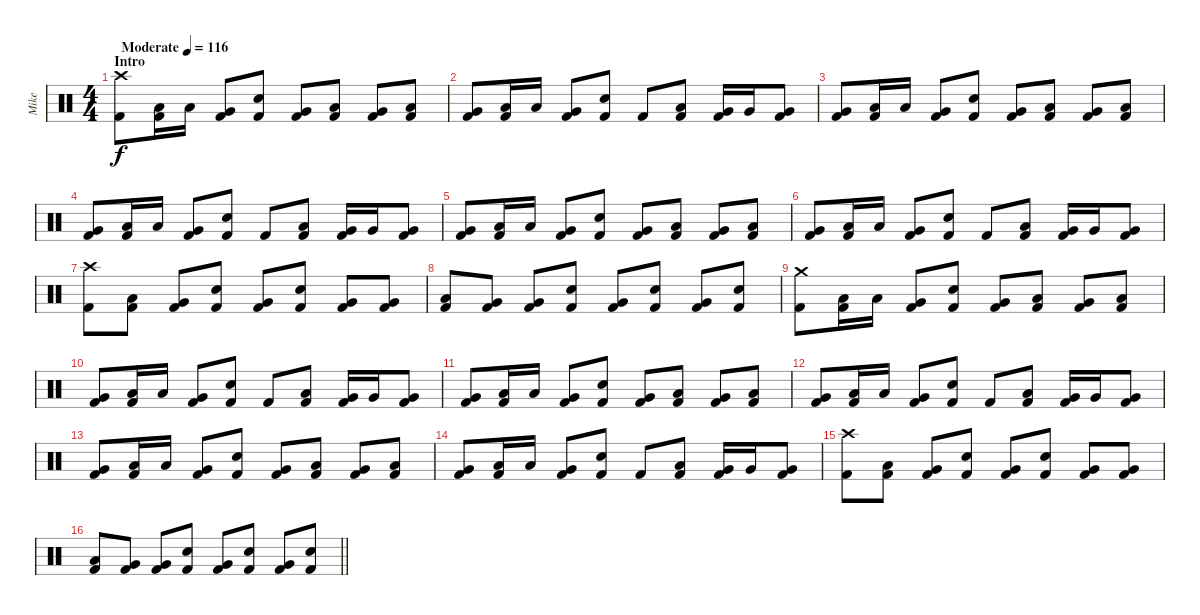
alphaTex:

\track ("Mike" "Mike") {instrument percussion}
\staff {score}
\articulation defaults
\ts (4 4)
\section ("" "Intro")
\tempo (116 "Moderate")
\clef neutral
\ks c
("Crash high (hit)" "Kick (hit) 2").8{dy f} ("Low Tom (hit)" "Kick (hit) 2").16 "Low Tom (hit)".16 ("Very Low Tom (hit)" "Kick (hit) 2").8 ("Snare (hit) 2" "Kick (hit) 2").8 ("Very Low Tom (hit)" "Kick (hit) 2").8 ("Low Tom (hit)" "Kick (hit) 2").8 ("Very Low Tom (hit)" "Kick (hit) 2").8 ("Low Tom (hit)" "Kick (hit) 2").8 |
("Very Low Tom (hit)" "Kick (hit) 2").8 ("Low Tom (hit)" "Kick (hit) 2").16 "Low Tom (hit)".16 ("Very Low Tom (hit)" "Kick (hit) 2").8 ("Snare (hit) 2" "Kick (hit) 2").8 "Kick (hit) 2".8 ("Low Tom (hit)" "Kick (hit) 2").8 ("Very Low Tom (hit)" "Kick (hit) 2").16 "Very Low Tom (hit)".16 ("Very Low Tom (hit)" "Kick (hit) 2").8 |
("Very Low Tom (hit)" "Kick (hit) 2").8 ("Low Tom (hit)" "Kick (hit) 2").16 "Low Tom (hit)".16 ("Very Low Tom (hit)" "Kick (hit) 2").8 ("Snare (hit) 2" "Kick (hit) 2").8 ("Very Low Tom (hit)" "Kick (hit) 2").8 ("Low Tom (hit)" "Kick (hit) 2").8 ("Very Low Tom (hit)" "Kick (hit) 2").8 ("Low Tom (hit)" "Kick (hit) 2").8 |
("Very Low Tom (hit)" "Kick (hit) 2").8 ("Low Tom (hit)" "Kick (hit) 2").16 "Low Tom (hit)".16 ("Very Low Tom (hit)" "Kick (hit) 2").8 ("Snare (hit) 2" "Kick (hit) 2").8 "Kick (hit) 2".8 ("Low Tom (hit)" "Kick (hit) 2").8 ("Very Low Tom (hit)" "Kick (hit) 2").16 "Very Low Tom (hit)".16 ("Very Low Tom (hit)" "Kick (hit) 2").8 |
("Very Low Tom (hit)" "Kick (hit) 2").8 ("Low Tom (hit)" "Kick (hit) 2").16 "Low Tom (hit)".16 ("Very Low Tom (hit)" "Kick (hit) 2").8 ("Snare (hit) 2" "Kick (hit) 2").8 ("Very Low Tom (hit)" "Kick (hit) 2").8 ("Low Tom (hit)" "Kick (hit) 2").8 ("Very Low Tom (hit)" "Kick (hit) 2").8 ("Low Tom (hit)" "Kick (hit) 2").8 |
("Very Low Tom (hit)" "Kick (hit) 2").8 ("Low Tom (hit)" "Kick (hit) 2").16 "Low Tom (hit)".16 ("Very Low Tom (hit)" "Kick (hit) 2").8 ("Snare (hit) 2" "Kick (hit) 2").8 "Kick (hit) 2".8 ("Low Tom (hit)" "Kick (hit) 2").8 ("Very Low Tom (hit)" "Kick (hit) 2").16 "Very Low Tom (hit)".16 ("Very Low Tom (hit)" "Kick (hit) 2").8 |
("Crash high (hit)" "Kick (hit) 2").8 ("Low Tom (hit)" "Kick (hit) 2").8 ("Very Low Tom (hit)" "Kick (hit) 2").8 ("Snare (hit) 2" "Kick (hit) 2").8 ("Very Low Tom (hit)" "Kick (hit) 2").8 ("Snare (hit) 2" "Kick (hit) 2").8 ("Very Low Tom (hit)" "Kick (hit) 2").8 ("Very Low Tom (hit)" "Kick (hit) 2").8 |
("Low Tom (hit)" "Kick (hit) 2").8 ("Very Low Tom (hit)" "Kick (hit) 2").8 ("Very Low Tom (hit)" "Kick (hit) 2").8 ("Snare (hit) 2" "Kick (hit) 2").8 ("Very Low Tom (hit)" "Kick (hit) 2").8 ("Snare (hit) 2" "Kick (hit) 2").8 ("Very Low Tom (hit)" "Kick (hit) 2").8 ("Snare (hit) 2" "Kick (hit) 2").8 |
("Crash medium (hit)" "Kick (hit) 2").8 ("Low Tom (hit)" "Kick (hit) 2").16 "Low Tom (hit)".16 ("Very Low Tom (hit)" "Kick (hit) 2").8 ("Snare (hit) 2" "Kick (hit) 2").8 ("Very Low Tom (hit)" "Kick (hit) 2").8 ("Low Tom (hit)" "Kick (hit) 2").8 ("Very Low Tom (hit)" "Kick (hit) 2").8 ("Low Tom (hit)" "Kick (hit) 2").8 |
("Very Low Tom (hit)" "Kick (hit) 2").8 ("Low Tom (hit)" "Kick (hit) 2").16 "Low Tom (hit)".16 ("Very Low Tom (hit)" "Kick (hit) 2").8 ("Snare (hit) 2" "Kick (hit) 2").8 "Kick (hit) 2".8 ("Low Tom (hit)" "Kick (hit) 2").8 ("Very Low Tom (hit)" "Kick (hit) 2").16 "Very Low Tom (hit)".16 ("Very Low Tom (hit)" "Kick (hit) 2").8 |
("Very Low Tom (hit)" "Kick (hit) 2").8 ("Low Tom (hit)" "Kick (hit) 2").16 "Low Tom (hit)".16 ("Very Low Tom (hit)" "Kick (hit) 2").8 ("Snare (hit) 2" "Kick (hit) 2").8 ("Very Low Tom (hit)" "Kick (hit) 2").8 ("Low Tom (hit)" "Kick (hit) 2").8 ("Very Low Tom (hit)" "Kick (hit) 2").8 ("Low Tom (hit)" "Kick (hit) 2").8 |
("Very Low Tom (hit)" "Kick (hit) 2").8 ("Low Tom (hit)" "Kick (hit) 2").16 "Low Tom (hit)".16 ("Very Low Tom (hit)" "Kick (hit) 2").8 ("Snare (hit) 2" "Kick (hit) 2").8 "Kick (hit) 2".8 ("Low Tom (hit)" "Kick (hit) 2").8 ("Very Low Tom (hit)" "Kick (hit) 2").16 "Very Low Tom (hit)".16 ("Very Low Tom (hit)" "Kick (hit) 2").8 |
("Very Low Tom (hit)" "Kick (hit) 2").8 ("Low Tom (hit)" "Kick (hit) 2").16 "Low Tom (hit)".16 ("Very Low Tom (hit)" "Kick (hit) 2").8 ("Snare (hit) 2" "Kick (hit) 2").8 ("Very Low Tom (hit)" "Kick (hit) 2").8 ("Low Tom (hit)" "Kick (hit) 2").8 ("Very Low Tom (hit)" "Kick (hit) 2").8 ("Low Tom (hit)" "Kick (hit) 2").8 |
("Very Low Tom (hit)" "Kick (hit) 2").8 ("Low Tom (hit)" "Kick (hit) 2").16 "Low Tom (hit)".16 ("Very Low Tom (hit)" "Kick (hit) 2").8 ("Snare (hit) 2" "Kick (hit) 2").8 "Kick (hit) 2".8 ("Low Tom (hit)" "Kick (hit) 2").8 ("Very Low Tom (hit)" "Kick (hit) 2").16 "Very Low Tom (hit)".16 ("Very Low Tom (hit)" "Kick (hit) 2").8 |
("Crash high (hit)" "Kick (hit) 2").8 ("Low Tom (hit)" "Kick (hit) 2").8 ("Very Low Tom (hit)" "Kick (hit) 2").8 ("Snare (hit) 2" "Kick (hit) 2").8 ("Very Low Tom (hit)" "Kick (hit) 2").8 ("Snare (hit) 2" "Kick (hit) 2").8 ("Very Low Tom (hit)" "Kick (hit) 2").8 ("Very Low Tom (hit)" "Kick (hit) 2").8 |
\barLineRight lightlight
("Low Tom (hit)" "Kick (hit) 2").8 ("Very Low Tom (hit)" "Kick (hit) 2").8 ("Very Low Tom (hit)" "Kick (hit) 2").8 ("Snare (hit) 2" "Kick (hit) 2").8 ("Very Low Tom (hit)" "Kick (hit) 2").8 ("Snare (hit) 2" "Kick (hit) 2").8 ("Very Low Tom (hit)" "Kick (hit) 2").8 ("Snare (hit) 2" "Kick (hit) 2").8
